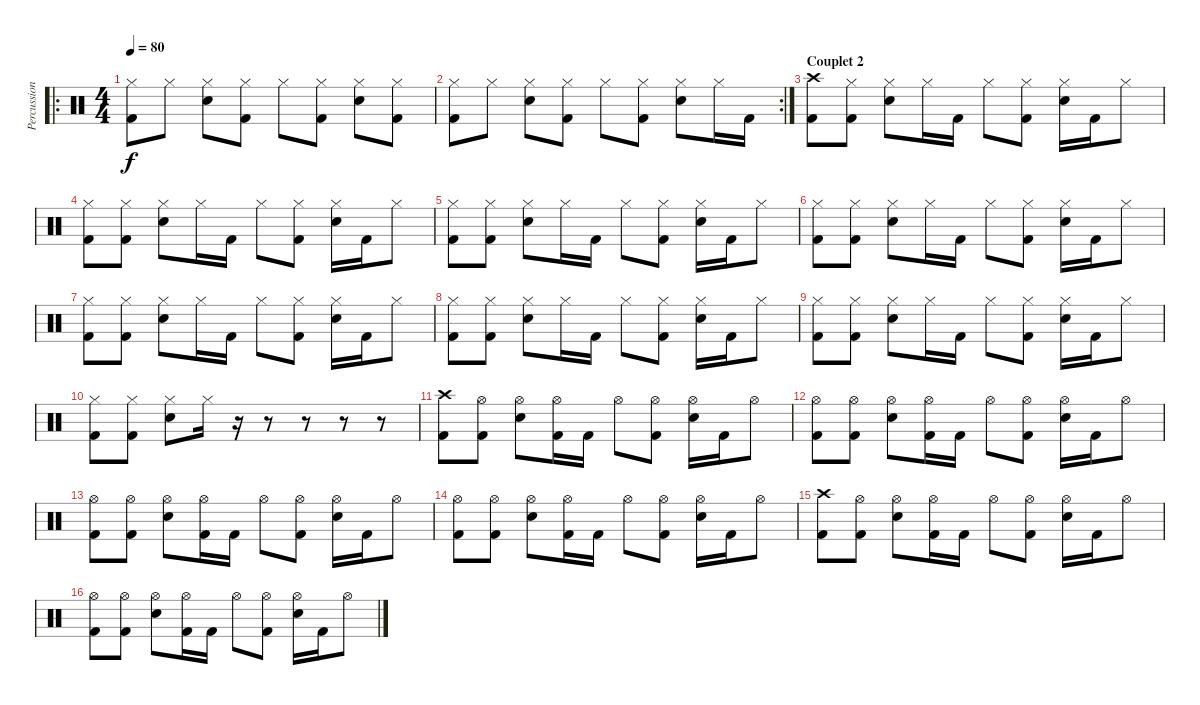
\track ("Percussions" "Percussion") {instrument percussion}
\staff {score}
\articulation defaults
\ro
\ts (4 4)
\tempo 80
\clef neutral
\ks c
("Hi-Hat (closed)" "Kick (hit) 2").8{dy f} "Hi-Hat (closed)".8 ("Hi-Hat (closed)" "Electric Snare (hit)").8 ("Hi-Hat (closed)" "Kick (hit) 2").8 "Hi-Hat (closed)".8 ("Hi-Hat (closed)" "Kick (hit) 2").8 ("Hi-Hat (closed)" "Electric Snare (hit)").8 ("Hi-Hat (closed)" "Kick (hit) 2").8 |
\rc 2
("Hi-Hat (closed)" "Kick (hit) 2").8 "Hi-Hat (closed)".8 ("Hi-Hat (closed)" "Electric Snare (hit)").8 ("Hi-Hat (closed)" "Kick (hit) 2").8 "Hi-Hat (closed)".8 ("Hi-Hat (closed)" "Kick (hit) 2").8 ("Hi-Hat (closed)" "Electric Snare (hit)").8 "Hi-Hat (closed)".16 "Kick (hit) 2".16 |
\section ("" "Couplet 2")
("Crash high (hit)" "Kick (hit) 2").8 ("Hi-Hat (closed)" "Kick (hit) 2").8 ("Hi-Hat (closed)" "Electric Snare (hit)").8 "Hi-Hat (closed)".16 "Kick (hit) 2".16 "Hi-Hat (closed)".8 ("Hi-Hat (closed)" "Kick (hit) 2").8 ("Hi-Hat (closed)" "Electric Snare (hit)").16 "Kick (hit) 2".16 "Hi-Hat (closed)".8 |
("Hi-Hat (closed)" "Kick (hit) 2").8 ("Hi-Hat (closed)" "Kick (hit) 2").8 ("Hi-Hat (closed)" "Electric Snare (hit)").8 "Hi-Hat (closed)".16 "Kick (hit) 2".16 "Hi-Hat (closed)".8 ("Hi-Hat (closed)" "Kick (hit) 2").8 ("Hi-Hat (closed)" "Electric Snare (hit)").16 "Kick (hit) 2".16 "Hi-Hat (closed)".8 |
("Hi-Hat (closed)" "Kick (hit) 2").8 ("Hi-Hat (closed)" "Kick (hit) 2").8 ("Hi-Hat (closed)" "Electric Snare (hit)").8 "Hi-Hat (closed)".16 "Kick (hit) 2".16 "Hi-Hat (closed)".8 ("Hi-Hat (closed)" "Kick (hit) 2").8 ("Hi-Hat (closed)" "Electric Snare (hit)").16 "Kick (hit) 2".16 "Hi-Hat (closed)".8 |
("Hi-Hat (closed)" "Kick (hit) 2").8 ("Hi-Hat (closed)" "Kick (hit) 2").8 ("Hi-Hat (closed)" "Electric Snare (hit)").8 "Hi-Hat (closed)".16 "Kick (hit) 2".16 "Hi-Hat (closed)".8 ("Hi-Hat (closed)" "Kick (hit) 2").8 ("Hi-Hat (closed)" "Electric Snare (hit)").16 "Kick (hit) 2".16 "Hi-Hat (closed)".8 |
("Hi-Hat (closed)" "Kick (hit) 2").8 ("Hi-Hat (closed)" "Kick (hit) 2").8 ("Hi-Hat (closed)" "Electric Snare (hit)").8 "Hi-Hat (closed)".16 "Kick (hit) 2".16 "Hi-Hat (closed)".8 ("Hi-Hat (closed)" "Kick (hit) 2").8 ("Hi-Hat (closed)" "Electric Snare (hit)").16 "Kick (hit) 2".16 "Hi-Hat (closed)".8 |
("Hi-Hat (closed)" "Kick (hit) 2").8 ("Hi-Hat (closed)" "Kick (hit) 2").8 ("Hi-Hat (closed)" "Electric Snare (hit)").8 "Hi-Hat (closed)".16 "Kick (hit) 2".16 "Hi-Hat (closed)".8 ("Hi-Hat (closed)" "Kick (hit) 2").8 ("Hi-Hat (closed)" "Electric Snare (hit)").16 "Kick (hit) 2".16 "Hi-Hat (closed)".8 |
("Hi-Hat (closed)" "Kick (hit) 2").8 ("Hi-Hat (closed)" "Kick (hit) 2").8 ("Hi-Hat (closed)" "Electric Snare (hit)").8 "Hi-Hat (closed)".16 "Kick (hit) 2".16 "Hi-Hat (closed)".8 ("Hi-Hat (closed)" "Kick (hit) 2").8 ("Hi-Hat (closed)" "Electric Snare (hit)").16 "Kick (hit) 2".16 "Hi-Hat (closed)".8 |
("Hi-Hat (closed)" "Kick (hit) 2").8 ("Hi-Hat (closed)" "Kick (hit) 2").8 ("Hi-Hat (closed)" "Electric Snare (hit)").8 "Hi-Hat (closed)".16 r.16 r.8 r.8 r.8 r.8 |
("Crash high (hit)" "Kick (hit) 2").8 ("Hi-Hat (open)" "Kick (hit) 2").8 ("Hi-Hat (open)" "Electric Snare (hit)").8 ("Hi-Hat (open)" "Kick (hit) 2").16 "Kick (hit) 2".16 "Hi-Hat (open)".8 ("Hi-Hat (open)" "Kick (hit) 2").8 ("Hi-Hat (open)" "Electric Snare (hit)").16 "Kick (hit) 2".16 "Hi-Hat (open)".8 |
("Hi-Hat (open)" "Kick (hit) 2").8 ("Hi-Hat (open)" "Kick (hit) 2").8 ("Hi-Hat (open)" "Electric Snare (hit)").8 ("Hi-Hat (open)" "Kick (hit) 2").16 "Kick (hit) 2".16 "Hi-Hat (open)".8 ("Hi-Hat (open)" "Kick (hit) 2").8 ("Hi-Hat (open)" "Electric Snare (hit)").16 "Kick (hit) 2".16 "Hi-Hat (open)".8 |
("Hi-Hat (open)" "Kick (hit) 2").8 ("Hi-Hat (open)" "Kick (hit) 2").8 ("Hi-Hat (open)" "Electric Snare (hit)").8 ("Hi-Hat (open)" "Kick (hit) 2").16 "Kick (hit) 2".16 "Hi-Hat (open)".8 ("Hi-Hat (open)" "Kick (hit) 2").8 ("Hi-Hat (open)" "Electric Snare (hit)").16 "Kick (hit) 2".16 "Hi-Hat (open)".8 |
("Hi-Hat (open)" "Kick (hit) 2").8 ("Hi-Hat (open)" "Kick (hit) 2").8 ("Hi-Hat (open)" "Electric Snare (hit)").8 ("Hi-Hat (open)" "Kick (hit) 2").16 "Kick (hit) 2".16 "Hi-Hat (open)".8 ("Hi-Hat (open)" "Kick (hit) 2").8 ("Hi-Hat (open)" "Electric Snare (hit)").16 "Kick (hit) 2".16 "Hi-Hat (open)".8 |
("Crash high (hit)" "Kick (hit) 2").8 ("Hi-Hat (open)" "Kick (hit) 2").8 ("Hi-Hat (open)" "Electric Snare (hit)").8 ("Hi-Hat (open)" "Kick (hit) 2").16 "Kick (hit) 2".16 "Hi-Hat (open)".8 ("Hi-Hat (open)" "Kick (hit) 2").8 ("Hi-Hat (open)" "Electric Snare (hit)").16 "Kick (hit) 2".16 "Hi-Hat (open)".8 |
("Hi-Hat (open)" "Kick (hit) 2").8 ("Hi-Hat (open)" "Kick (hit) 2").8 ("Hi-Hat (open)" "Electric Snare (hit)").8 ("Hi-Hat (open)" "Kick (hit) 2").16 "Kick (hit) 2".16 "Hi-Hat (open)".8 ("Hi-Hat (open)" "Kick (hit) 2").8 ("Hi-Hat (open)" "Electric Snare (hit)").16 "Kick (hit) 2".16 "Hi-Hat (open)".8
